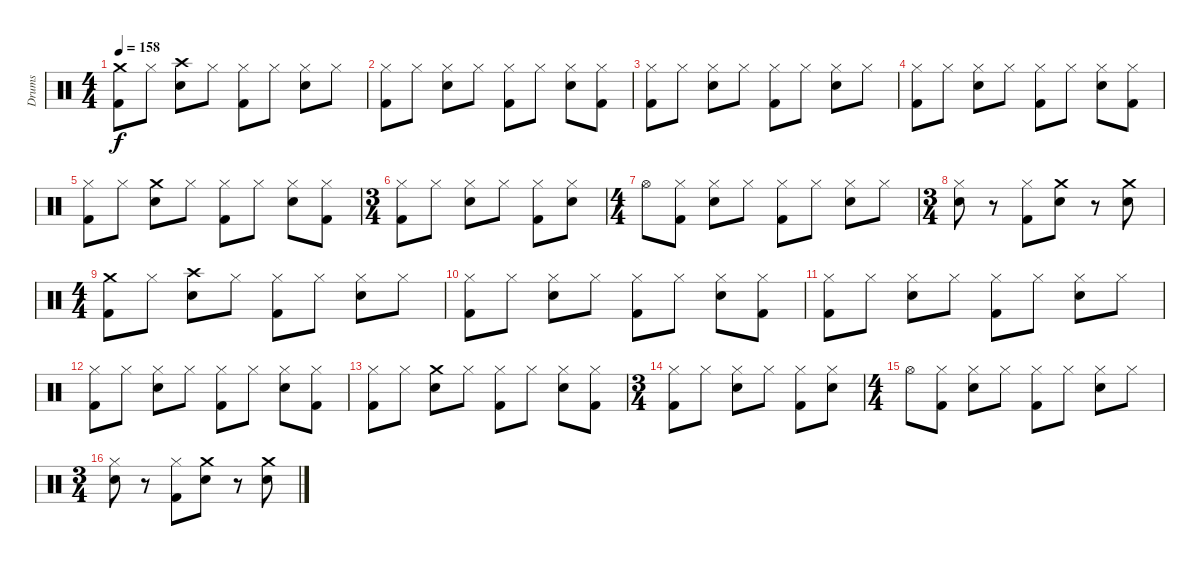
\track ("Drums" "Drums") {instrument percussion}
\staff {score}
\articulation defaults
\ts (4 4)
\tempo 158
\clef neutral
\ks c
("Crash medium (hit)" "Kick (hit) 2").8{dy f} "Hi-Hat (closed)".8 ("Crash high (hit)" "Snare (hit) 2").8 "Hi-Hat (closed)".8 ("Hi-Hat (closed)" "Kick (hit) 2").8 "Hi-Hat (closed)".8 ("Hi-Hat (closed)" "Snare (hit) 2").8 "Hi-Hat (closed)".8 |
("Hi-Hat (closed)" "Kick (hit) 2").8 "Hi-Hat (closed)".8 ("Hi-Hat (closed)" "Snare (hit) 2").8 "Hi-Hat (closed)".8 ("Hi-Hat (closed)" "Kick (hit) 2").8 "Hi-Hat (closed)".8 ("Hi-Hat (closed)" "Snare (hit) 2").8 ("Hi-Hat (closed)" "Kick (hit) 2").8 |
("Hi-Hat (closed)" "Kick (hit) 2").8 "Hi-Hat (closed)".8 ("Hi-Hat (closed)" "Snare (hit) 2").8 "Hi-Hat (closed)".8 ("Hi-Hat (closed)" "Kick (hit) 2").8 "Hi-Hat (closed)".8 ("Hi-Hat (closed)" "Snare (hit) 2").8 "Hi-Hat (closed)".8 |
("Hi-Hat (closed)" "Kick (hit) 2").8 "Hi-Hat (closed)".8 ("Hi-Hat (closed)" "Snare (hit) 2").8 "Hi-Hat (closed)".8 ("Hi-Hat (closed)" "Kick (hit) 2").8 "Hi-Hat (closed)".8 ("Hi-Hat (closed)" "Snare (hit) 2").8 ("Hi-Hat (closed)" "Kick (hit) 2").8 |
("Hi-Hat (closed)" "Kick (hit) 2").8 "Hi-Hat (closed)".8 ("Crash medium (hit)" "Snare (hit) 2").8 "Hi-Hat (closed)".8 ("Hi-Hat (closed)" "Kick (hit) 2").8 "Hi-Hat (closed)".8 ("Hi-Hat (closed)" "Snare (hit) 2").8 ("Hi-Hat (closed)" "Kick (hit) 2").8 |
\ts (3 4)
("Hi-Hat (closed)" "Kick (hit) 2").8 "Hi-Hat (closed)".8 ("Hi-Hat (closed)" "Snare (hit) 2").8 "Hi-Hat (closed)".8 ("Hi-Hat (closed)" "Kick (hit) 2").8 ("Hi-Hat (closed)" "Snare (hit) 2").8 |
\ts (4 4)
"Hi-Hat (open)".8 ("Hi-Hat (closed)" "Kick (hit) 2").8 ("Hi-Hat (closed)" "Snare (hit) 2").8 "Hi-Hat (closed)".8 ("Hi-Hat (closed)" "Kick (hit) 2").8 "Hi-Hat (closed)".8 ("Hi-Hat (closed)" "Snare (hit) 2").8 "Hi-Hat (closed)".8 |
\ts (3 4)
("Hi-Hat (closed)" "Snare (hit) 2").8 r.8 ("Hi-Hat (closed)" "Kick (hit) 2").8 ("Crash medium (hit)" "Snare (hit) 2").8 r.8 ("Crash medium (hit)" "Snare (hit) 2").8 |
\ts (4 4)
("Crash medium (hit)" "Kick (hit) 2").8 "Hi-Hat (closed)".8 ("Crash high (hit)" "Snare (hit) 2").8 "Hi-Hat (closed)".8 ("Hi-Hat (closed)" "Kick (hit) 2").8 "Hi-Hat (closed)".8 ("Hi-Hat (closed)" "Snare (hit) 2").8 "Hi-Hat (closed)".8 |
("Hi-Hat (closed)" "Kick (hit) 2").8 "Hi-Hat (closed)".8 ("Hi-Hat (closed)" "Snare (hit) 2").8 "Hi-Hat (closed)".8 ("Hi-Hat (closed)" "Kick (hit) 2").8 "Hi-Hat (closed)".8 ("Hi-Hat (closed)" "Snare (hit) 2").8 ("Hi-Hat (closed)" "Kick (hit) 2").8 |
("Hi-Hat (closed)" "Kick (hit) 2").8 "Hi-Hat (closed)".8 ("Hi-Hat (closed)" "Snare (hit) 2").8 "Hi-Hat (closed)".8 ("Hi-Hat (closed)" "Kick (hit) 2").8 "Hi-Hat (closed)".8 ("Hi-Hat (closed)" "Snare (hit) 2").8 "Hi-Hat (closed)".8 |
("Hi-Hat (closed)" "Kick (hit) 2").8 "Hi-Hat (closed)".8 ("Hi-Hat (closed)" "Snare (hit) 2").8 "Hi-Hat (closed)".8 ("Hi-Hat (closed)" "Kick (hit) 2").8 "Hi-Hat (closed)".8 ("Hi-Hat (closed)" "Snare (hit) 2").8 ("Hi-Hat (closed)" "Kick (hit) 2").8 |
("Hi-Hat (closed)" "Kick (hit) 2").8 "Hi-Hat (closed)".8 ("Crash medium (hit)" "Snare (hit) 2").8 "Hi-Hat (closed)".8 ("Hi-Hat (closed)" "Kick (hit) 2").8 "Hi-Hat (closed)".8 ("Hi-Hat (closed)" "Snare (hit) 2").8 ("Hi-Hat (closed)" "Kick (hit) 2").8 |
\ts (3 4)
("Hi-Hat (closed)" "Kick (hit) 2").8 "Hi-Hat (closed)".8 ("Hi-Hat (closed)" "Snare (hit) 2").8 "Hi-Hat (closed)".8 ("Hi-Hat (closed)" "Kick (hit) 2").8 ("Hi-Hat (closed)" "Snare (hit) 2").8 |
\ts (4 4)
"Hi-Hat (open)".8 ("Hi-Hat (closed)" "Kick (hit) 2").8 ("Hi-Hat (closed)" "Snare (hit) 2").8 "Hi-Hat (closed)".8 ("Hi-Hat (closed)" "Kick (hit) 2").8 "Hi-Hat (closed)".8 ("Hi-Hat (closed)" "Snare (hit) 2").8 "Hi-Hat (closed)".8 |
\ts (3 4)
("Hi-Hat (closed)" "Snare (hit) 2").8 r.8 ("Hi-Hat (closed)" "Kick (hit) 2").8 ("Crash medium (hit)" "Snare (hit) 2").8 r.8 ("Crash medium (hit)" "Snare (hit) 2").8
